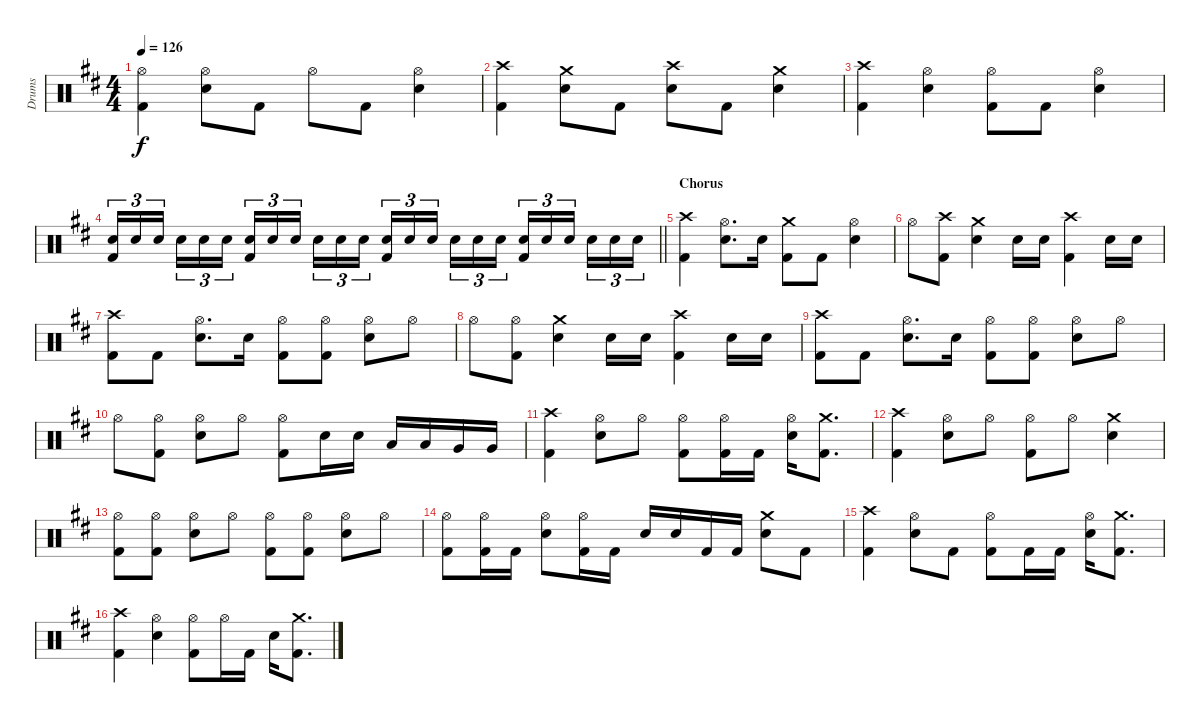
\track ("Drums" "Drums") {instrument percussion}
\staff {score}
\articulation defaults
\ts (4 4)
\tempo 126
\clef neutral
\ks d
("Hi-Hat (open)" "Kick (hit) 2").4{dy f} ("Hi-Hat (open)" "Electric Snare (hit)").8 "Kick (hit) 2".8 "Hi-Hat (open)".8 "Kick (hit) 2".8 ("Hi-Hat (open)" "Electric Snare (hit)").4 |
("Crash high (hit)" "Kick (hit) 2").4 ("Crash medium (hit)" "Electric Snare (hit)").8 "Kick (hit) 2".8 ("Crash high (hit)" "Electric Snare (hit)").8 "Kick (hit) 2".8 ("Crash medium (hit)" "Electric Snare (hit)").4 |
("Crash high (hit)" "Kick (hit) 2").4 ("Hi-Hat (open)" "Electric Snare (hit)").4 ("Hi-Hat (open)" "Kick (hit) 2").8 "Kick (hit) 2".8 ("Hi-Hat (open)" "Electric Snare (hit)").4 |
\barLineRight lightlight
("Electric Snare (hit)" "Kick (hit) 2").16{tu (3 2)} "Electric Snare (hit)".16{tu (3 2)} "Electric Snare (hit)".16{tu (3 2) beam splitsecondary} "Electric Snare (hit)".16{tu (3 2)} "Electric Snare (hit)".16{tu (3 2)} "Electric Snare (hit)".16{tu (3 2)} ("Electric Snare (hit)" "Kick (hit) 2").16{tu (3 2)} "Electric Snare (hit)".16{tu (3 2)} "Electric Snare (hit)".16{tu (3 2) beam splitsecondary} "Electric Snare (hit)".16{tu (3 2)} "Electric Snare (hit)".16{tu (3 2)} "Electric Snare (hit)".16{tu (3 2)} ("Electric Snare (hit)" "Kick (hit) 2").16{tu (3 2)} "Electric Snare (hit)".16{tu (3 2)} "Electric Snare (hit)".16{tu (3 2) beam splitsecondary} "Electric Snare (hit)".16{tu (3 2)} "Electric Snare (hit)".16{tu (3 2)} "Electric Snare (hit)".16{tu (3 2)} ("Electric Snare (hit)" "Kick (hit) 2").16{tu (3 2)} "Electric Snare (hit)".16{tu (3 2)} "Electric Snare (hit)".16{tu (3 2) beam splitsecondary} "Electric Snare (hit)".16{tu (3 2)} "Electric Snare (hit)".16{tu (3 2)} "Electric Snare (hit)".16{tu (3 2)} |
\section ("" "Chorus")
("Crash high (hit)" "Kick (hit) 2").4 ("Hi-Hat (open)" "Electric Snare (hit)").8{d} "Electric Snare (hit)".16 ("Crash medium (hit)" "Kick (hit) 2").8 "Kick (hit) 2".8 ("Hi-Hat (open)" "Electric Snare (hit)").4 |
"Hi-Hat (open)".8 ("Crash high (hit)" "Kick (hit) 2").8 ("Crash medium (hit)" "Electric Snare (hit)").4 "Electric Snare (hit)".16 "Electric Snare (hit)".16 ("Crash high (hit)" "Kick (hit) 2").4 "Electric Snare (hit)".16 "Electric Snare (hit)".16 |
("Crash high (hit)" "Kick (hit) 2").8 "Kick (hit) 2".8 ("Hi-Hat (open)" "Electric Snare (hit)").8{d} "Electric Snare (hit)".16 ("Hi-Hat (open)" "Kick (hit) 2").8 ("Hi-Hat (open)" "Kick (hit) 2").8 ("Hi-Hat (open)" "Electric Snare (hit)").8 "Hi-Hat (open)".8 |
"Hi-Hat (open)".8 ("Hi-Hat (open)" "Kick (hit) 2").8 ("Crash medium (hit)" "Electric Snare (hit)").4 "Electric Snare (hit)".16 "Electric Snare (hit)".16 ("Crash high (hit)" "Kick (hit) 2").4 "Electric Snare (hit)".16 "Electric Snare (hit)".16 |
("Crash high (hit)" "Kick (hit) 2").8 "Kick (hit) 2".8 ("Hi-Hat (open)" "Electric Snare (hit)").8{d} "Electric Snare (hit)".16 ("Hi-Hat (open)" "Kick (hit) 2").8 ("Hi-Hat (open)" "Kick (hit) 2").8 ("Hi-Hat (open)" "Electric Snare (hit)").8 "Hi-Hat (open)".8 |
"Hi-Hat (open)".8 ("Hi-Hat (open)" "Kick (hit) 2").8 ("Hi-Hat (open)" "Electric Snare (hit)").8 "Hi-Hat (open)".8 ("Hi-Hat (open)" "Kick (hit) 2").8 "Electric Snare (hit)".16 "Electric Snare (hit)".16 "Low Tom (hit)".16 "Low Tom (hit)".16 "Very Low Tom (hit)".16 "Very Low Tom (hit)".16 |
("Crash high (hit)" "Kick (hit) 2").4 ("Hi-Hat (open)" "Electric Snare (hit)").8 "Hi-Hat (open)".8 ("Hi-Hat (open)" "Kick (hit) 2").8 ("Hi-Hat (open)" "Kick (hit) 2").16 "Kick (hit) 2".16 ("Hi-Hat (open)" "Electric Snare (hit)").16 ("Crash medium (hit)" "Kick (hit) 2").8{d} |
("Crash high (hit)" "Kick (hit) 2").4 ("Hi-Hat (open)" "Electric Snare (hit)").8 "Hi-Hat (open)".8 ("Hi-Hat (open)" "Kick (hit) 2").8 "Hi-Hat (open)".8 ("Crash medium (hit)" "Electric Snare (hit)").4 |
("Hi-Hat (open)" "Kick (hit) 2").8 ("Hi-Hat (open)" "Kick (hit) 2").8 ("Hi-Hat (open)" "Electric Snare (hit)").8 "Hi-Hat (open)".8 ("Hi-Hat (open)" "Kick (hit) 2").8 ("Hi-Hat (open)" "Kick (hit) 2").8 ("Hi-Hat (open)" "Electric Snare (hit)").8 "Hi-Hat (open)".8 |
("Hi-Hat (open)" "Kick (hit) 2").8 ("Hi-Hat (open)" "Kick (hit) 2").16 "Kick (hit) 2".16 ("Hi-Hat (open)" "Electric Snare (hit)").8 ("Hi-Hat (open)" "Kick (hit) 2").16 "Kick (hit) 2".16 "Electric Snare (hit)".16 "Electric Snare (hit)".16 "Kick (hit) 2".16 "Kick (hit) 2".16 ("Crash medium (hit)" "Electric Snare (hit)").8 "Kick (hit) 2".8 |
("Crash high (hit)" "Kick (hit) 2").4 ("Hi-Hat (open)" "Electric Snare (hit)").8 "Kick (hit) 2".8 ("Hi-Hat (open)" "Kick (hit) 2").8 "Kick (hit) 2".16 "Kick (hit) 2".16 ("Hi-Hat (open)" "Electric Snare (hit)").16 ("Crash medium (hit)" "Kick (hit) 2").8{d} |
("Crash high (hit)" "Kick (hit) 2").4 ("Hi-Hat (open)" "Electric Snare (hit)").4 ("Hi-Hat (open)" "Kick (hit) 2").8 "Hi-Hat (open)".16 "Kick (hit) 2".16 "Electric Snare (hit)".16 ("Crash medium (hit)" "Kick (hit) 2").8{d}
